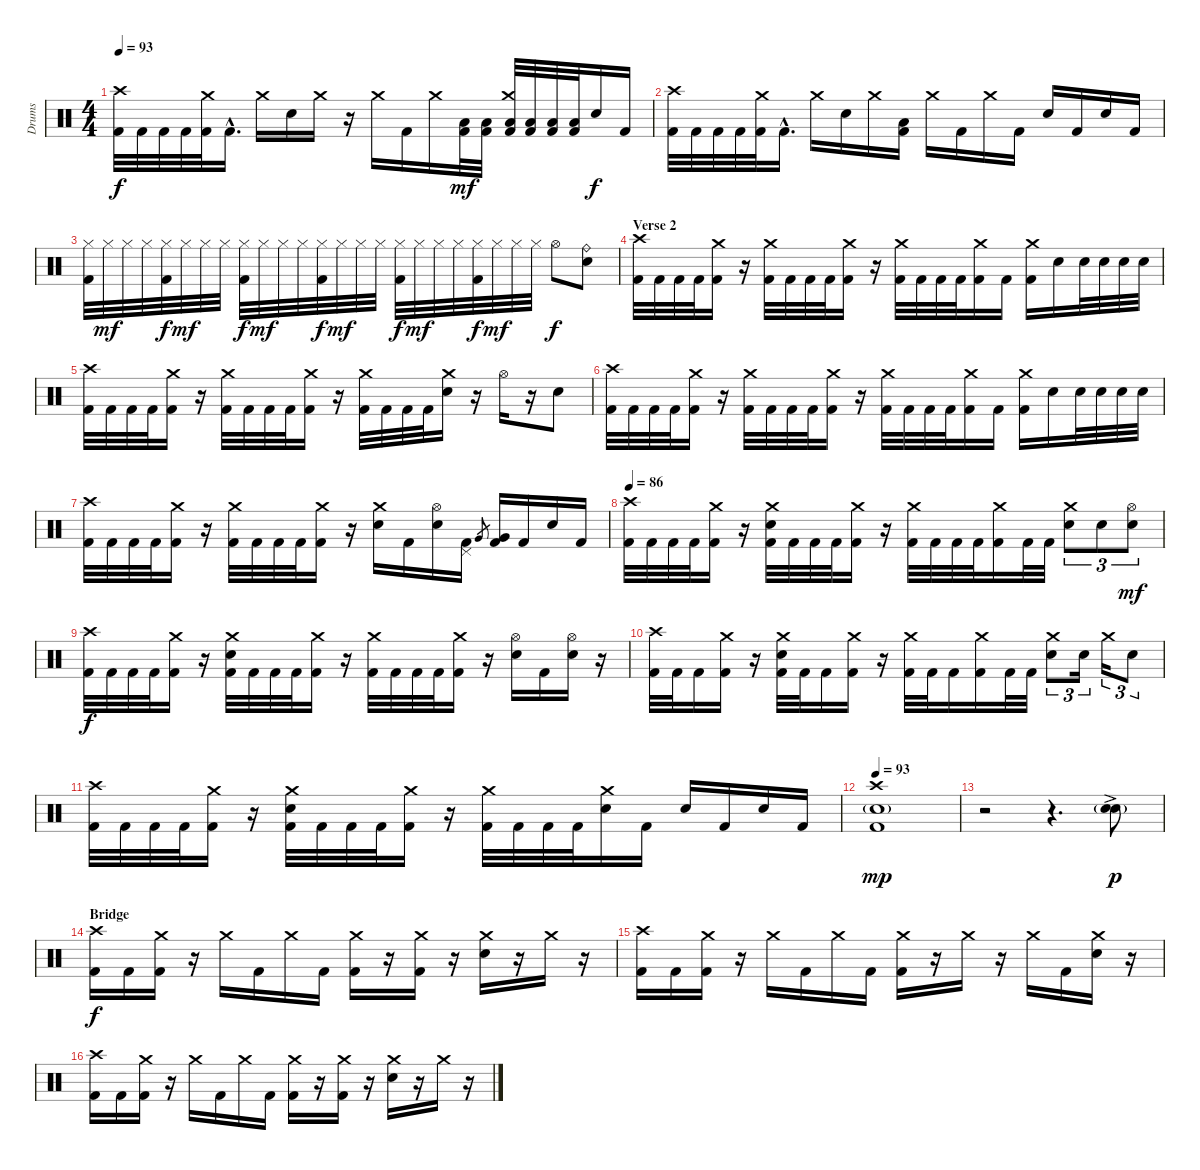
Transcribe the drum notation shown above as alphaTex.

\track ("Drums" "Drums") {instrument percussion}
\staff {score}
\articulation defaults
\ts (4 4)
\tempo 93
\clef neutral
\ks c
("Crash high (hit)" "Kick (hit) 2").32{dy f} "Kick (hit) 2".32 "Kick (hit) 2".32 "Kick (hit) 2".32 ("Crash medium (hit)" "Kick (hit) 2").32 "Kick (hit) 2"{hac}.16{d} "Crash medium (hit)".16 "Electric Snare (hit)".16 "Crash medium (hit)".16 r.16 "Crash medium (hit)".16 "Kick (hit) 2".16 "Crash medium (hit)".16 ("Low Floor Tom (hit)" "Kick (hit) 2").32{dy mf} ("Low Floor Tom (hit)" "Kick (hit) 2").32 ("Crash medium (hit)" "Low Floor Tom (hit)" "Kick (hit) 2").32 ("Low Floor Tom (hit)" "Kick (hit) 2").32 ("Low Floor Tom (hit)" "Kick (hit) 2").32 ("Low Floor Tom (hit)" "Kick (hit) 2").32 "Electric Snare (hit)".16{dy f} "Kick (hit) 2".16 |
("Crash high (hit)" "Kick (hit) 2").32 "Kick (hit) 2".32 "Kick (hit) 2".32 "Kick (hit) 2".32 ("Crash medium (hit)" "Kick (hit) 2").32 "Kick (hit) 2"{hac}.16{d} "Crash medium (hit)".16 "Electric Snare (hit)".16 "Crash medium (hit)".16 ("Low Tom (hit)" "Kick (hit) 2").16 "Crash medium (hit)".16 "Kick (hit) 2".16 "Crash medium (hit)".16 "Kick (hit) 2".16 "Electric Snare (hit)".16 "Kick (hit) 2".16 "Electric Snare (hit)".16 "Kick (hit) 2".16 |
("Hi-Hat (closed)" "Kick (hit) 2").32 "Hi-Hat (closed)".32{dy mf} "Hi-Hat (closed)".32 "Hi-Hat (closed)".32 ("Hi-Hat (closed)" "Kick (hit) 2").32{dy f} "Hi-Hat (closed)".32{dy mf} "Hi-Hat (closed)".32 "Hi-Hat (closed)".32 ("Hi-Hat (closed)" "Kick (hit) 2").32{dy f} "Hi-Hat (closed)".32{dy mf} "Hi-Hat (closed)".32 "Hi-Hat (closed)".32 ("Hi-Hat (closed)" "Kick (hit) 2").32{dy f} "Hi-Hat (closed)".32{dy mf} "Hi-Hat (closed)".32 "Hi-Hat (closed)".32 ("Hi-Hat (closed)" "Kick (hit) 2").32{dy f} "Hi-Hat (closed)".32{dy mf} "Hi-Hat (closed)".32 "Hi-Hat (closed)".32 ("Hi-Hat (closed)" "Kick (hit) 2").32{dy f} "Hi-Hat (closed)".32{dy mf} "Hi-Hat (closed)".32 "Hi-Hat (closed)".32 "Hi-Hat (open)".8{dy f} ("Ride (bell)" "Electric Snare (hit)").8 |
\section ("" "Verse 2")
("Crash high (hit)" "Kick (hit) 2").32 "Kick (hit) 2".32 "Kick (hit) 2".32 "Kick (hit) 2".32 ("Crash medium (hit)" "Kick (hit) 2").16 r.16 ("Crash medium (hit)" "Kick (hit) 2").32 "Kick (hit) 2".32 "Kick (hit) 2".32 "Kick (hit) 2".32 ("Crash medium (hit)" "Kick (hit) 2").16 r.16 ("Crash medium (hit)" "Kick (hit) 2").32 "Kick (hit) 2".32 "Kick (hit) 2".32 "Kick (hit) 2".32 ("Crash medium (hit)" "Kick (hit) 2").16 "Kick (hit) 2".16 ("Crash medium (hit)" "Kick (hit) 2").16 "Electric Snare (hit)".16 "Electric Snare (hit)".32 "Electric Snare (hit)".32 "Electric Snare (hit)".32 "Electric Snare (hit)".32 |
("Crash high (hit)" "Kick (hit) 2").32 "Kick (hit) 2".32 "Kick (hit) 2".32 "Kick (hit) 2".32 ("Crash medium (hit)" "Kick (hit) 2").16 r.16 ("Crash medium (hit)" "Kick (hit) 2").32 "Kick (hit) 2".32 "Kick (hit) 2".32 "Kick (hit) 2".32 ("Crash medium (hit)" "Kick (hit) 2").16 r.16 ("Crash medium (hit)" "Kick (hit) 2").32 "Kick (hit) 2".32 "Kick (hit) 2".32 "Kick (hit) 2".32 ("Crash medium (hit)" "Electric Snare (hit)").16 r.16 "Hi-Hat (open)".16 r.16 "Electric Snare (hit)".8 |
("Crash high (hit)" "Kick (hit) 2").32 "Kick (hit) 2".32 "Kick (hit) 2".32 "Kick (hit) 2".32 ("Crash medium (hit)" "Kick (hit) 2").16 r.16 ("Crash medium (hit)" "Kick (hit) 2").32 "Kick (hit) 2".32 "Kick (hit) 2".32 "Kick (hit) 2".32 ("Crash medium (hit)" "Kick (hit) 2").16 r.16 ("Crash medium (hit)" "Kick (hit) 2").32 "Kick (hit) 2".32 "Kick (hit) 2".32 "Kick (hit) 2".32 ("Crash medium (hit)" "Kick (hit) 2").16 "Kick (hit) 2".16 ("Crash medium (hit)" "Kick (hit) 2").16 "Electric Snare (hit)".16 "Electric Snare (hit)".32 "Electric Snare (hit)".32 "Electric Snare (hit)".32 "Electric Snare (hit)".32 |
("Crash high (hit)" "Kick (hit) 2").32 "Kick (hit) 2".32 "Kick (hit) 2".32 "Kick (hit) 2".32 ("Crash medium (hit)" "Kick (hit) 2").16 r.16 ("Crash medium (hit)" "Kick (hit) 2").32 "Kick (hit) 2".32 "Kick (hit) 2".32 "Kick (hit) 2".32 ("Crash medium (hit)" "Kick (hit) 2").16 r.16 ("Crash medium (hit)" "Electric Snare (hit)").16 "Kick (hit) 2".16 ("Hi-Hat (open)" "Electric Snare (hit)").16 ("Pedal Hi-Hat (hit)" "Kick (hit) 2").16 "Very Low Tom (hit)".8{gr} ("Very Low Tom (hit)" "Kick (hit) 2").16 "Kick (hit) 2".16 "Electric Snare (hit)".16 "Kick (hit) 2".16 |
\tempo 86
("Crash high (hit)" "Kick (hit) 2").32 "Kick (hit) 2".32 "Kick (hit) 2".32 "Kick (hit) 2".32 ("Crash medium (hit)" "Kick (hit) 2").16 r.16 ("Crash medium (hit)" "Electric Snare (hit)" "Kick (hit) 2").32 "Kick (hit) 2".32 "Kick (hit) 2".32 "Kick (hit) 2".32 ("Crash medium (hit)" "Kick (hit) 2").16 r.16 ("Crash medium (hit)" "Kick (hit) 2").32 "Kick (hit) 2".32 "Kick (hit) 2".32 "Kick (hit) 2".32 ("Crash medium (hit)" "Kick (hit) 2").16 "Kick (hit) 2".32 "Kick (hit) 2".32 ("Crash medium (hit)" "Electric Snare (hit)").8{tu (3 2)} "Electric Snare (hit)".8{tu (3 2)} ("Hi-Hat (open)" "Electric Snare (hit)").8{tu (3 2) dy mf} |
("Crash high (hit)" "Kick (hit) 2").32{dy f} "Kick (hit) 2".32 "Kick (hit) 2".32 "Kick (hit) 2".32 ("Crash medium (hit)" "Kick (hit) 2").16 r.16 ("Crash medium (hit)" "Electric Snare (hit)" "Kick (hit) 2").32 "Kick (hit) 2".32 "Kick (hit) 2".32 "Kick (hit) 2".32 ("Crash medium (hit)" "Kick (hit) 2").16 r.16 ("Crash medium (hit)" "Kick (hit) 2").32 "Kick (hit) 2".32 "Kick (hit) 2".32 "Kick (hit) 2".32 ("Crash medium (hit)" "Kick (hit) 2").16 r.16 ("Hi-Hat (open)" "Electric Snare (hit)").16 "Kick (hit) 2".16 ("Hi-Hat (open)" "Electric Snare (hit)").16 r.16 |
("Crash high (hit)" "Kick (hit) 2").32 "Kick (hit) 2".32 "Kick (hit) 2".16 ("Crash medium (hit)" "Kick (hit) 2").16 r.16 ("Crash medium (hit)" "Electric Snare (hit)" "Kick (hit) 2").32 "Kick (hit) 2".32 "Kick (hit) 2".16 ("Crash medium (hit)" "Kick (hit) 2").16 r.16 ("Crash medium (hit)" "Kick (hit) 2").32 "Kick (hit) 2".32 "Kick (hit) 2".16 ("Crash medium (hit)" "Kick (hit) 2").16 "Kick (hit) 2".32 "Kick (hit) 2".32 ("Crash medium (hit)" "Electric Snare (hit)").8{tu (3 2)} "Electric Snare (hit)".16{tu (3 2)} "Crash medium (hit)".16{tu (3 2)} "Electric Snare (hit)".8{tu (3 2)} |
("Crash high (hit)" "Kick (hit) 2").32 "Kick (hit) 2".32 "Kick (hit) 2".32 "Kick (hit) 2".32 ("Crash medium (hit)" "Kick (hit) 2").16 r.16 ("Crash medium (hit)" "Electric Snare (hit)" "Kick (hit) 2").32 "Kick (hit) 2".32 "Kick (hit) 2".32 "Kick (hit) 2".32 ("Crash medium (hit)" "Kick (hit) 2").16 r.16 ("Crash medium (hit)" "Kick (hit) 2").32 "Kick (hit) 2".32 "Kick (hit) 2".32 "Kick (hit) 2".32 ("Crash medium (hit)" "Electric Snare (hit)").16 "Kick (hit) 2".16 "Electric Snare (hit)".16 "Kick (hit) 2".16 "Electric Snare (hit)".16 "Kick (hit) 2".16 |
\tempo 93
("Crash high (hit)" "Electric Snare (hit)"{g} "Kick (hit) 2").1{dy mp} |
r.2 r.4{d} ("Electric Snare (hit)"{ac} "Snare (hit) 2"{g}).8{dy p} |
\section ("" "Bridge")
("Crash high (hit)" "Kick (hit) 2").16{dy f} "Kick (hit) 2".16 ("Crash medium (hit)" "Kick (hit) 2").16 r.16 "Crash medium (hit)".16 "Kick (hit) 2".16 "Crash medium (hit)".16 "Kick (hit) 2".16 ("Crash medium (hit)" "Kick (hit) 2").16 r.16 ("Crash medium (hit)" "Kick (hit) 2").16 r.16 ("Crash medium (hit)" "Electric Snare (hit)").16 r.16 "Crash medium (hit)".16 r.16 |
("Crash high (hit)" "Kick (hit) 2").16 "Kick (hit) 2".16 ("Crash medium (hit)" "Kick (hit) 2").16 r.16 "Crash medium (hit)".16 "Kick (hit) 2".16 "Crash medium (hit)".16 "Kick (hit) 2".16 ("Crash medium (hit)" "Kick (hit) 2").16 r.16 "Crash medium (hit)".16 r.16 "Crash medium (hit)".16 "Kick (hit) 2".16 ("Crash medium (hit)" "Electric Snare (hit)").16 r.16 |
("Crash high (hit)" "Kick (hit) 2").16 "Kick (hit) 2".16 ("Crash medium (hit)" "Kick (hit) 2").16 r.16 "Crash medium (hit)".16 "Kick (hit) 2".16 "Crash medium (hit)".16 "Kick (hit) 2".16 ("Crash medium (hit)" "Kick (hit) 2").16 r.16 ("Crash medium (hit)" "Kick (hit) 2").16 r.16 ("Crash medium (hit)" "Electric Snare (hit)").16 r.16 "Crash medium (hit)".16 r.16
